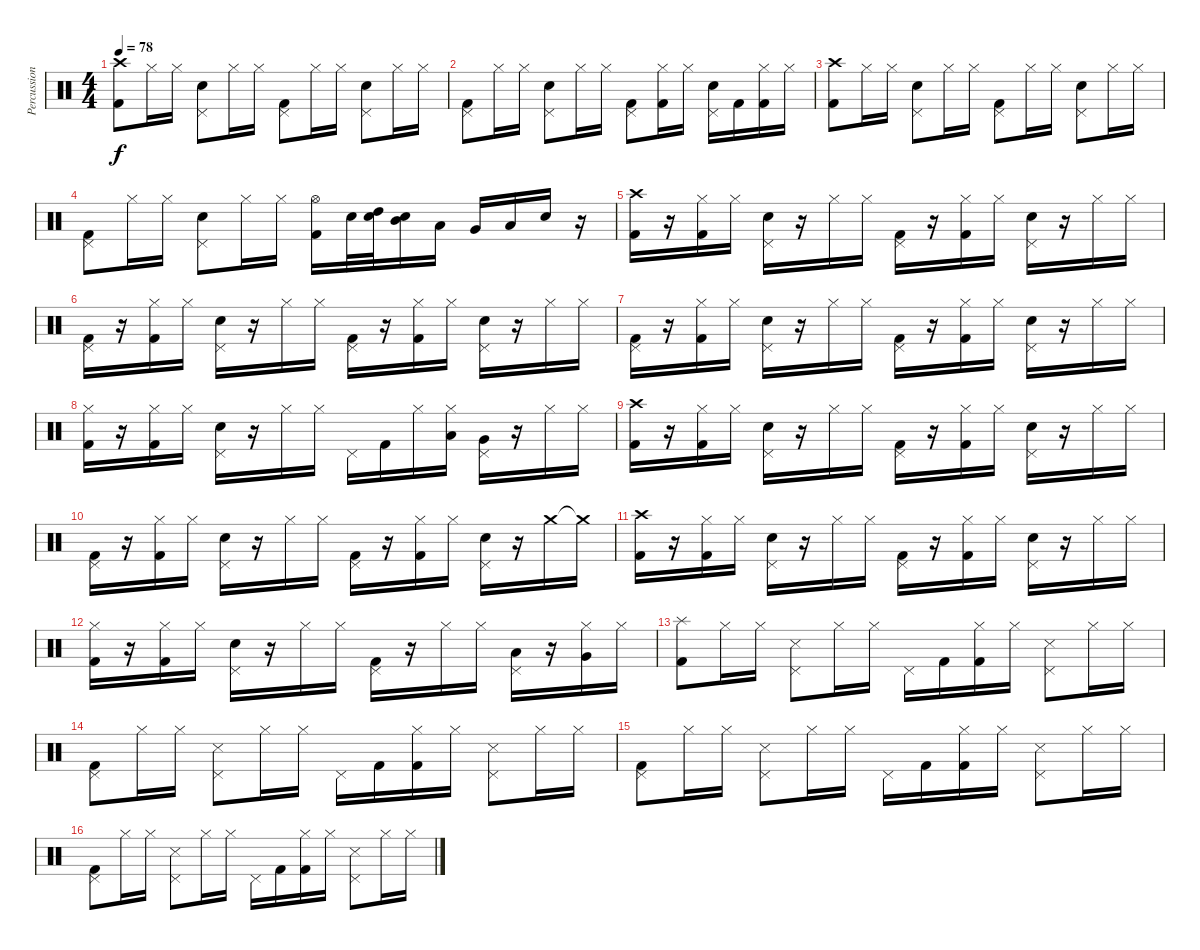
\track ("Percussion" "Percussion") {instrument percussion}
\staff {score}
\articulation defaults
\ts (4 4)
\tempo 78
\clef neutral
\ks c
("Crash high (hit)" "Kick (hit) 2").8{dy f} "Hi-Hat (closed)".16 "Hi-Hat (closed)".16 ("Pedal Hi-Hat (hit)" "Electric Snare (hit)").8 "Hi-Hat (closed)".16 "Hi-Hat (closed)".16 ("Pedal Hi-Hat (hit)" "Kick (hit) 2").8 "Hi-Hat (closed)".16 "Hi-Hat (closed)".16 ("Pedal Hi-Hat (hit)" "Electric Snare (hit)").8 "Hi-Hat (closed)".16 "Hi-Hat (closed)".16 |
("Pedal Hi-Hat (hit)" "Kick (hit) 2").8 "Hi-Hat (closed)".16 "Hi-Hat (closed)".16 ("Pedal Hi-Hat (hit)" "Electric Snare (hit)").8 "Hi-Hat (closed)".16 "Hi-Hat (closed)".16 ("Pedal Hi-Hat (hit)" "Kick (hit) 2").8 ("Hi-Hat (closed)" "Kick (hit) 2").16 "Hi-Hat (closed)".16 ("Pedal Hi-Hat (hit)" "Electric Snare (hit)").16 "Kick (hit) 2".16 ("Hi-Hat (closed)" "Kick (hit) 2").16 "Hi-Hat (closed)".16 |
("Crash high (hit)" "Kick (hit) 2").8 "Hi-Hat (closed)".16 "Hi-Hat (closed)".16 ("Pedal Hi-Hat (hit)" "Electric Snare (hit)").8 "Hi-Hat (closed)".16 "Hi-Hat (closed)".16 ("Pedal Hi-Hat (hit)" "Kick (hit) 2").8 "Hi-Hat (closed)".16 "Hi-Hat (closed)".16 ("Pedal Hi-Hat (hit)" "Electric Snare (hit)").8 "Hi-Hat (closed)".16 "Hi-Hat (closed)".16 |
("Pedal Hi-Hat (hit)" "Kick (hit) 2").8 "Hi-Hat (closed)".16 "Hi-Hat (closed)".16 ("Pedal Hi-Hat (hit)" "Electric Snare (hit)").8 "Hi-Hat (closed)".16 "Hi-Hat (closed)".16 ("Hi-Hat (open)" "Kick (hit) 2").16 "Electric Snare (hit)".32 ("Electric Snare (hit)" "High Tom (hit)").32 ("Electric Snare (hit)" "Mid Tom (hit)").16 "Low Tom (hit)".16 "Very Low Tom (hit)".16 "Low Floor Tom (hit)".16 "Electric Snare (hit)".16 r.16 |
("Crash high (hit)" "Kick (hit) 2").16 r.16 ("Hi-Hat (closed)" "Kick (hit) 2").16 "Hi-Hat (closed)".16 ("Pedal Hi-Hat (hit)" "Electric Snare (hit)").16 r.16 "Hi-Hat (closed)".16 "Hi-Hat (closed)".16 ("Pedal Hi-Hat (hit)" "Kick (hit) 2").16 r.16 ("Hi-Hat (closed)" "Kick (hit) 2").16 "Hi-Hat (closed)".16 ("Pedal Hi-Hat (hit)" "Electric Snare (hit)").16 r.16 "Hi-Hat (closed)".16 "Hi-Hat (closed)".16 |
("Pedal Hi-Hat (hit)" "Kick (hit) 2").16 r.16 ("Hi-Hat (closed)" "Kick (hit) 2").16 "Hi-Hat (closed)".16 ("Pedal Hi-Hat (hit)" "Electric Snare (hit)").16 r.16 "Hi-Hat (closed)".16 "Hi-Hat (closed)".16 ("Pedal Hi-Hat (hit)" "Kick (hit) 2").16 r.16 ("Hi-Hat (closed)" "Kick (hit) 2").16 "Hi-Hat (closed)".16 ("Pedal Hi-Hat (hit)" "Electric Snare (hit)").16 r.16 "Hi-Hat (closed)".16 "Hi-Hat (closed)".16 |
("Pedal Hi-Hat (hit)" "Kick (hit) 2").16 r.16 ("Hi-Hat (closed)" "Kick (hit) 2").16 "Hi-Hat (closed)".16 ("Pedal Hi-Hat (hit)" "Electric Snare (hit)").16 r.16 "Hi-Hat (closed)".16 "Hi-Hat (closed)".16 ("Pedal Hi-Hat (hit)" "Kick (hit) 2").16 r.16 ("Hi-Hat (closed)" "Kick (hit) 2").16 "Hi-Hat (closed)".16 ("Pedal Hi-Hat (hit)" "Electric Snare (hit)").16 r.16 "Hi-Hat (closed)".16 "Hi-Hat (closed)".16 |
("Hi-Hat (closed)" "Kick (hit) 2").16 r.16 ("Hi-Hat (closed)" "Kick (hit) 2").16 "Hi-Hat (closed)".16 ("Pedal Hi-Hat (hit)" "Electric Snare (hit)").16 r.16 "Hi-Hat (closed)".16 "Hi-Hat (closed)".16 "Pedal Hi-Hat (hit)".16 "Kick (hit) 2".16 "Hi-Hat (closed)".16 ("Hi-Hat (closed)" "Low Tom (hit)").16 ("Pedal Hi-Hat (hit)" "Very Low Tom (hit)").16 r.16 "Hi-Hat (closed)".16 "Hi-Hat (closed)".16 |
("Crash high (hit)" "Kick (hit) 2").16 r.16 ("Hi-Hat (closed)" "Kick (hit) 2").16 "Hi-Hat (closed)".16 ("Pedal Hi-Hat (hit)" "Electric Snare (hit)").16 r.16 "Hi-Hat (closed)".16 "Hi-Hat (closed)".16 ("Pedal Hi-Hat (hit)" "Kick (hit) 2").16 r.16 ("Hi-Hat (closed)" "Kick (hit) 2").16 "Hi-Hat (closed)".16 ("Pedal Hi-Hat (hit)" "Electric Snare (hit)").16 r.16 "Hi-Hat (closed)".16 "Hi-Hat (closed)".16 |
("Pedal Hi-Hat (hit)" "Kick (hit) 2").16 r.16 ("Hi-Hat (closed)" "Kick (hit) 2").16 "Hi-Hat (closed)".16 ("Pedal Hi-Hat (hit)" "Electric Snare (hit)").16 r.16 "Hi-Hat (closed)".16 "Hi-Hat (closed)".16 ("Pedal Hi-Hat (hit)" "Kick (hit) 2").16 r.16 ("Hi-Hat (closed)" "Kick (hit) 2").16 "Hi-Hat (closed)".16 ("Pedal Hi-Hat (hit)" "Electric Snare (hit)").16 r.16 "Crash medium (hit)".16 "Crash medium (hit)"{t}.16 |
("Crash high (hit)" "Kick (hit) 2").16 r.16 ("Hi-Hat (closed)" "Kick (hit) 2").16 "Hi-Hat (closed)".16 ("Pedal Hi-Hat (hit)" "Electric Snare (hit)").16 r.16 "Hi-Hat (closed)".16 "Hi-Hat (closed)".16 ("Pedal Hi-Hat (hit)" "Kick (hit) 2").16 r.16 ("Hi-Hat (closed)" "Kick (hit) 2").16 "Hi-Hat (closed)".16 ("Pedal Hi-Hat (hit)" "Electric Snare (hit)").16 r.16 "Hi-Hat (closed)".16 "Hi-Hat (closed)".16 |
("Hi-Hat (closed)" "Kick (hit) 2").16 r.16 ("Hi-Hat (closed)" "Kick (hit) 2").16 "Hi-Hat (closed)".16 ("Pedal Hi-Hat (hit)" "Electric Snare (hit)").16 r.16 "Hi-Hat (closed)".16 "Hi-Hat (closed)".16 ("Pedal Hi-Hat (hit)" "Kick (hit) 2").16 r.16 "Hi-Hat (closed)".16 "Hi-Hat (closed)".16 ("Pedal Hi-Hat (hit)" "Low Tom (hit)").16 r.16 ("Hi-Hat (closed)" "Very Low Tom (hit)").16 "Hi-Hat (closed)".16 |
("Splash (hit)" "Kick (hit) 2").8 "Hi-Hat (closed)".16 "Hi-Hat (closed)".16 ("Pedal Hi-Hat (hit)" "Metronome (hit)").8 "Hi-Hat (closed)".16 "Hi-Hat (closed)".16 "Pedal Hi-Hat (hit)".16 "Kick (hit) 2".16 ("Hi-Hat (closed)" "Kick (hit) 2").16 "Hi-Hat (closed)".16 ("Pedal Hi-Hat (hit)" "Metronome (hit)").8 "Hi-Hat (closed)".16 "Hi-Hat (closed)".16 |
("Pedal Hi-Hat (hit)" "Kick (hit) 2").8 "Hi-Hat (closed)".16 "Hi-Hat (closed)".16 ("Pedal Hi-Hat (hit)" "Metronome (hit)").8 "Hi-Hat (closed)".16 "Hi-Hat (closed)".16 "Pedal Hi-Hat (hit)".16 "Kick (hit) 2".16 ("Hi-Hat (closed)" "Kick (hit) 2").16 "Hi-Hat (closed)".16 ("Pedal Hi-Hat (hit)" "Metronome (hit)").8 "Hi-Hat (closed)".16 "Hi-Hat (closed)".16 |
("Pedal Hi-Hat (hit)" "Kick (hit) 2").8 "Hi-Hat (closed)".16 "Hi-Hat (closed)".16 ("Pedal Hi-Hat (hit)" "Metronome (hit)").8 "Hi-Hat (closed)".16 "Hi-Hat (closed)".16 "Pedal Hi-Hat (hit)".16 "Kick (hit) 2".16 ("Hi-Hat (closed)" "Kick (hit) 2").16 "Hi-Hat (closed)".16 ("Pedal Hi-Hat (hit)" "Metronome (hit)").8 "Hi-Hat (closed)".16 "Hi-Hat (closed)".16 |
("Pedal Hi-Hat (hit)" "Kick (hit) 2").8 "Hi-Hat (closed)".16 "Hi-Hat (closed)".16 ("Pedal Hi-Hat (hit)" "Metronome (hit)").8 "Hi-Hat (closed)".16 "Hi-Hat (closed)".16 "Pedal Hi-Hat (hit)".16 "Kick (hit) 2".16 ("Hi-Hat (closed)" "Kick (hit) 2").16 "Hi-Hat (closed)".16 ("Pedal Hi-Hat (hit)" "Metronome (hit)").8 "Hi-Hat (closed)".16 "Hi-Hat (closed)".16
